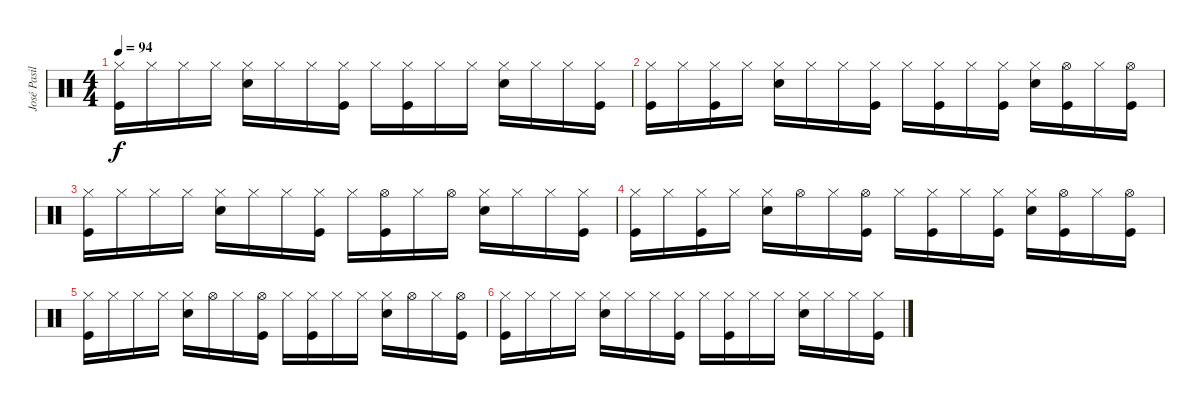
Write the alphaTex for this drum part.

\track ("José Pasillas II : Drums" "José Pasil") {instrument percussion}
\staff {score}
\articulation defaults
\ts (4 4)
\tempo 94
\clef neutral
\ks c
("Hi-Hat (closed)" "Kick (hit)").16{dy f} "Hi-Hat (closed)".16 "Hi-Hat (closed)".16 "Hi-Hat (closed)".16 ("Hi-Hat (closed)" "Snare (hit) 2").16 "Hi-Hat (closed)".16 "Hi-Hat (closed)".16 ("Hi-Hat (closed)" "Kick (hit)").16 "Hi-Hat (closed)".16 ("Hi-Hat (closed)" "Kick (hit)").16 "Hi-Hat (closed)".16 "Hi-Hat (closed)".16 ("Hi-Hat (closed)" "Snare (hit) 2").16 "Hi-Hat (closed)".16 "Hi-Hat (closed)".16 ("Hi-Hat (closed)" "Kick (hit)").16 |
("Hi-Hat (closed)" "Kick (hit)").16 "Hi-Hat (closed)".16 ("Hi-Hat (closed)" "Kick (hit)").16 "Hi-Hat (closed)".16 ("Hi-Hat (closed)" "Snare (hit) 2").16 "Hi-Hat (closed)".16 "Hi-Hat (closed)".16 ("Hi-Hat (closed)" "Kick (hit)").16 "Hi-Hat (closed)".16 ("Hi-Hat (closed)" "Kick (hit)").16 "Hi-Hat (closed)".16 ("Hi-Hat (closed)" "Kick (hit)").16 ("Hi-Hat (closed)" "Snare (hit) 2").16 ("Hi-Hat (open)" "Kick (hit)").16 "Hi-Hat (closed)".16 ("Hi-Hat (open)" "Kick (hit)").16 |
("Hi-Hat (closed)" "Kick (hit)").16{volume 11} "Hi-Hat (closed)".16 "Hi-Hat (closed)".16 "Hi-Hat (closed)".16 ("Hi-Hat (closed)" "Snare (hit) 2").16 "Hi-Hat (closed)".16 "Hi-Hat (closed)".16 ("Hi-Hat (closed)" "Kick (hit)").16 "Hi-Hat (closed)".16 ("Hi-Hat (open)" "Kick (hit)").16 "Hi-Hat (closed)".16 "Hi-Hat (open)".16 ("Hi-Hat (closed)" "Snare (hit) 2").16 "Hi-Hat (closed)".16 "Hi-Hat (closed)".16 ("Hi-Hat (closed)" "Kick (hit)").16 |
("Hi-Hat (closed)" "Kick (hit)").16{volume 8} "Hi-Hat (closed)".16 ("Hi-Hat (closed)" "Kick (hit)").16 "Hi-Hat (closed)".16 ("Hi-Hat (closed)" "Snare (hit) 2").16 "Hi-Hat (open)".16 "Hi-Hat (closed)".16 ("Hi-Hat (open)" "Kick (hit)").16 "Hi-Hat (closed)".16 ("Hi-Hat (closed)" "Kick (hit)").16 "Hi-Hat (closed)".16 ("Hi-Hat (closed)" "Kick (hit)").16 ("Hi-Hat (closed)" "Snare (hit) 2").16 ("Hi-Hat (open)" "Kick (hit)").16 "Hi-Hat (closed)".16 ("Hi-Hat (open)" "Kick (hit)").16 |
("Hi-Hat (closed)" "Kick (hit)").16{volume 1} "Hi-Hat (closed)".16 "Hi-Hat (closed)".16 "Hi-Hat (closed)".16 ("Hi-Hat (closed)" "Snare (hit) 2").16 "Hi-Hat (open)".16 "Hi-Hat (closed)".16 ("Hi-Hat (open)" "Kick (hit)").16 "Hi-Hat (closed)".16 ("Hi-Hat (closed)" "Kick (hit)").16 "Hi-Hat (closed)".16 "Hi-Hat (closed)".16 ("Hi-Hat (closed)" "Snare (hit) 2").16 "Hi-Hat (open)".16 "Hi-Hat (closed)".16 ("Hi-Hat (open)" "Kick (hit)").16 |
("Hi-Hat (closed)" "Kick (hit)").16 "Hi-Hat (closed)".16 "Hi-Hat (closed)".16 "Hi-Hat (closed)".16 ("Hi-Hat (closed)" "Snare (hit) 2").16 "Hi-Hat (closed)".16 "Hi-Hat (closed)".16 ("Hi-Hat (closed)" "Kick (hit)").16 "Hi-Hat (closed)".16 ("Hi-Hat (closed)" "Kick (hit)").16 "Hi-Hat (closed)".16 "Hi-Hat (closed)".16 ("Hi-Hat (closed)" "Snare (hit) 2").16 "Hi-Hat (closed)".16 "Hi-Hat (closed)".16 ("Hi-Hat (closed)" "Kick (hit)").16
